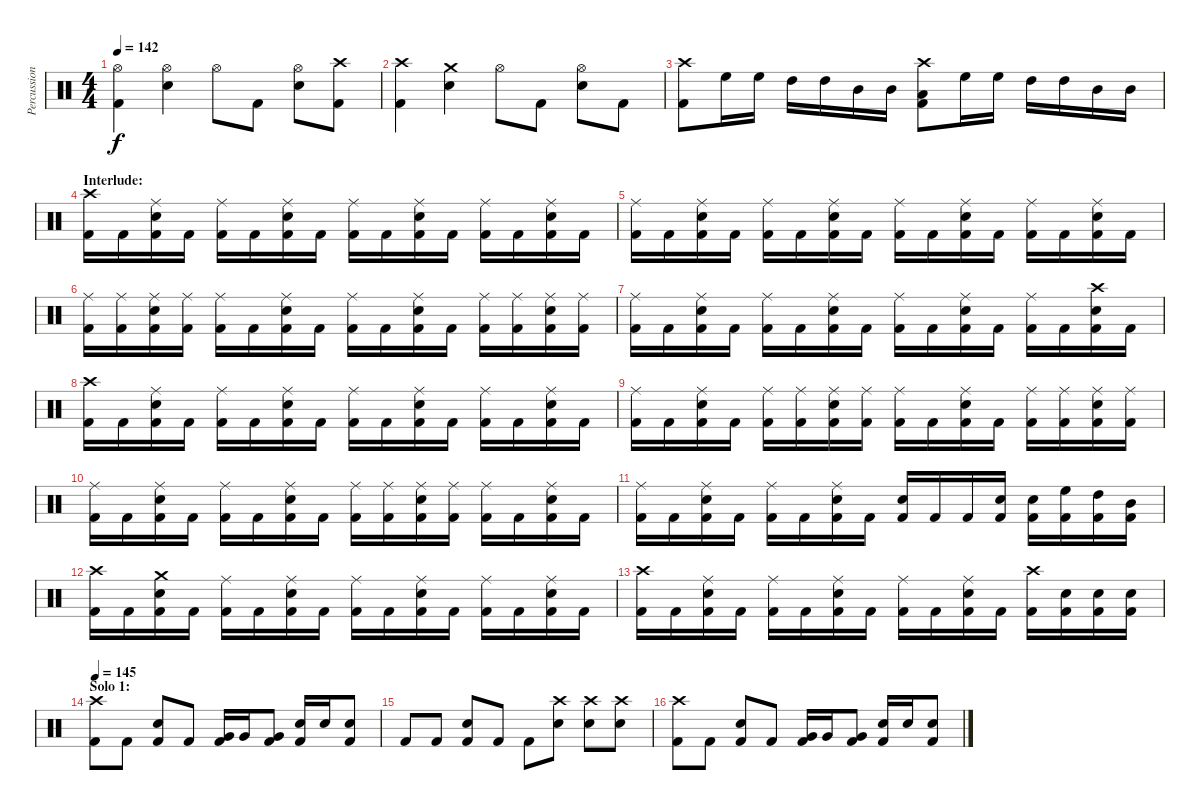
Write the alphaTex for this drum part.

\track ("Percussion" "Percussion") {instrument percussion}
\staff {score}
\articulation defaults
\ts (4 4)
\tempo 142
\clef neutral
\ks c
("Hi-Hat (open)" "Kick (hit) 2").4{dy f} ("Hi-Hat (open)" "Snare (hit) 2").4 "Hi-Hat (open)".8 "Kick (hit) 2".8 ("Hi-Hat (open)" "Snare (hit) 2").8 ("Crash high (hit)" "Kick (hit) 2").8 |
("Crash high (hit)" "Kick (hit) 2").4 ("Crash medium (hit)" "Snare (hit) 2").4 "Hi-Hat (open)".8 "Kick (hit) 2".8 ("Hi-Hat (open)" "Snare (hit) 2").8 "Kick (hit) 2".8 |
("Crash high (hit)" "Kick (hit) 2").8 "High Floor Tom (hit)".16 "High Floor Tom (hit)".16 "High Tom (hit)".16 "High Tom (hit)".16 "Mid Tom (hit)".16 "Mid Tom (hit)".16 ("Crash high (hit)" "Low Tom (hit)" "Kick (hit) 2").8 "High Floor Tom (hit)".16 "High Floor Tom (hit)".16 "High Tom (hit)".16 "High Tom (hit)".16 "Mid Tom (hit)".16 "Mid Tom (hit)".16 |
\section ("" "Interlude:")
("Crash high (hit)" "Kick (hit) 2").16 "Kick (hit) 2".16 ("Ride (middle)" "Snare (hit) 2" "Kick (hit) 2").16 "Kick (hit) 2".16 ("Ride (middle)" "Kick (hit) 2").16 "Kick (hit) 2".16 ("Ride (middle)" "Snare (hit) 2" "Kick (hit) 2").16 "Kick (hit) 2".16 ("Ride (middle)" "Kick (hit) 2").16 "Kick (hit) 2".16 ("Ride (middle)" "Snare (hit) 2" "Kick (hit) 2").16 "Kick (hit) 2".16 ("Ride (middle)" "Kick (hit) 2").16 "Kick (hit) 2".16 ("Ride (middle)" "Snare (hit) 2" "Kick (hit) 2").16 "Kick (hit) 2".16 |
("Ride (middle)" "Kick (hit) 2").16 "Kick (hit) 2".16 ("Ride (middle)" "Snare (hit) 2" "Kick (hit) 2").16 "Kick (hit) 2".16 ("Ride (middle)" "Kick (hit) 2").16 "Kick (hit) 2".16 ("Ride (middle)" "Snare (hit) 2" "Kick (hit) 2").16 "Kick (hit) 2".16 ("Ride (middle)" "Kick (hit) 2").16 "Kick (hit) 2".16 ("Ride (middle)" "Snare (hit) 2" "Kick (hit) 2").16 "Kick (hit) 2".16 ("Ride (middle)" "Kick (hit) 2").16 "Kick (hit) 2".16 ("Ride (middle)" "Snare (hit) 2" "Kick (hit) 2").16 "Kick (hit) 2".16 |
("Ride (middle)" "Kick (hit) 2").16 ("Ride (middle)" "Kick (hit) 2").16 ("Ride (middle)" "Snare (hit) 2" "Kick (hit) 2").16 ("Ride (middle)" "Kick (hit) 2").16 ("Ride (middle)" "Kick (hit) 2").16 "Kick (hit) 2".16 ("Ride (middle)" "Snare (hit) 2" "Kick (hit) 2").16 "Kick (hit) 2".16 ("Ride (middle)" "Kick (hit) 2").16 "Kick (hit) 2".16 ("Ride (middle)" "Snare (hit) 2" "Kick (hit) 2").16 "Kick (hit) 2".16 ("Ride (middle)" "Kick (hit) 2").16 ("Ride (middle)" "Kick (hit) 2").16 ("Ride (middle)" "Snare (hit) 2" "Kick (hit) 2").16 ("Ride (middle)" "Kick (hit) 2").16 |
("Ride (middle)" "Kick (hit) 2").16 "Kick (hit) 2".16 ("Ride (middle)" "Snare (hit) 2" "Kick (hit) 2").16 "Kick (hit) 2".16 ("Ride (middle)" "Kick (hit) 2").16 "Kick (hit) 2".16 ("Ride (middle)" "Snare (hit) 2" "Kick (hit) 2").16 "Kick (hit) 2".16 ("Ride (middle)" "Kick (hit) 2").16 "Kick (hit) 2".16 ("Ride (middle)" "Snare (hit) 2" "Kick (hit) 2").16 "Kick (hit) 2".16 ("Ride (middle)" "Kick (hit) 2").16 "Kick (hit) 2".16 ("Crash high (hit)" "Snare (hit) 2" "Kick (hit) 2").16 "Kick (hit) 2".16 |
("Crash high (hit)" "Kick (hit) 2").16 "Kick (hit) 2".16 ("Ride (middle)" "Snare (hit) 2" "Kick (hit) 2").16 "Kick (hit) 2".16 ("Ride (middle)" "Kick (hit) 2").16 "Kick (hit) 2".16 ("Ride (middle)" "Snare (hit) 2" "Kick (hit) 2").16 "Kick (hit) 2".16 ("Ride (middle)" "Kick (hit) 2").16 "Kick (hit) 2".16 ("Ride (middle)" "Snare (hit) 2" "Kick (hit) 2").16 "Kick (hit) 2".16 ("Ride (middle)" "Kick (hit) 2").16 "Kick (hit) 2".16 ("Ride (middle)" "Snare (hit) 2" "Kick (hit) 2").16 "Kick (hit) 2".16 |
("Ride (middle)" "Kick (hit) 2").16 "Kick (hit) 2".16 ("Ride (middle)" "Snare (hit) 2" "Kick (hit) 2").16 "Kick (hit) 2".16 ("Ride (middle)" "Kick (hit) 2").16 ("Ride (middle)" "Kick (hit) 2").16 ("Ride (middle)" "Snare (hit) 2" "Kick (hit) 2").16 ("Ride (middle)" "Kick (hit) 2").16 ("Ride (middle)" "Kick (hit) 2").16 "Kick (hit) 2".16 ("Ride (middle)" "Snare (hit) 2" "Kick (hit) 2").16 "Kick (hit) 2".16 ("Ride (middle)" "Kick (hit) 2").16 ("Ride (middle)" "Kick (hit) 2").16 ("Ride (middle)" "Snare (hit) 2" "Kick (hit) 2").16 ("Ride (middle)" "Kick (hit) 2").16 |
("Ride (middle)" "Kick (hit) 2").16 "Kick (hit) 2".16 ("Ride (middle)" "Snare (hit) 2" "Kick (hit) 2").16 "Kick (hit) 2".16 ("Ride (middle)" "Kick (hit) 2").16 "Kick (hit) 2".16 ("Ride (middle)" "Snare (hit) 2" "Kick (hit) 2").16 "Kick (hit) 2".16 ("Ride (middle)" "Kick (hit) 2").16 ("Ride (middle)" "Kick (hit) 2").16 ("Ride (middle)" "Snare (hit) 2" "Kick (hit) 2").16 ("Ride (middle)" "Kick (hit) 2").16 ("Ride (middle)" "Kick (hit) 2").16 "Kick (hit) 2".16 ("Ride (middle)" "Snare (hit) 2" "Kick (hit) 2").16 "Kick (hit) 2".16 |
("Ride (middle)" "Kick (hit) 2").16 "Kick (hit) 2".16 ("Ride (middle)" "Snare (hit) 2" "Kick (hit) 2").16 "Kick (hit) 2".16 ("Ride (middle)" "Kick (hit) 2").16 "Kick (hit) 2".16 ("Ride (middle)" "Snare (hit) 2" "Kick (hit) 2").16 "Kick (hit) 2".16 ("Snare (hit) 2" "Kick (hit) 2").16 "Kick (hit) 2".16 "Kick (hit) 2".16 ("Snare (hit) 2" "Kick (hit) 2").16 ("Snare (hit) 2" "Kick (hit) 2").16 ("High Floor Tom (hit)" "Kick (hit) 2").16 ("High Tom (hit)" "Kick (hit) 2").16 ("Mid Tom (hit)" "Kick (hit) 2").16 |
("Crash high (hit)" "Kick (hit) 2").16 "Kick (hit) 2".16 ("Crash medium (hit)" "Snare (hit) 2" "Kick (hit) 2").16 "Kick (hit) 2".16 ("Ride (middle)" "Kick (hit) 2").16 "Kick (hit) 2".16 ("Ride (middle)" "Snare (hit) 2" "Kick (hit) 2").16 "Kick (hit) 2".16 ("Ride (middle)" "Kick (hit) 2").16 "Kick (hit) 2".16 ("Ride (middle)" "Snare (hit) 2" "Kick (hit) 2").16 "Kick (hit) 2".16 ("Ride (middle)" "Kick (hit) 2").16 "Kick (hit) 2".16 ("Ride (middle)" "Snare (hit) 2" "Kick (hit) 2").16 "Kick (hit) 2".16 |
("Crash high (hit)" "Kick (hit) 2").16 "Kick (hit) 2".16 ("Ride (middle)" "Snare (hit) 2" "Kick (hit) 2").16 "Kick (hit) 2".16 ("Ride (middle)" "Kick (hit) 2").16 "Kick (hit) 2".16 ("Ride (middle)" "Snare (hit) 2" "Kick (hit) 2").16 "Kick (hit) 2".16 ("Ride (middle)" "Kick (hit) 2").16 "Kick (hit) 2".16 ("Ride (middle)" "Snare (hit) 2" "Kick (hit) 2").16 "Kick (hit) 2".16 ("Crash high (hit)" "Kick (hit) 2").16 ("Snare (hit) 2" "Kick (hit) 2").16 ("Snare (hit) 2" "Kick (hit) 2").16 ("Snare (hit) 2" "Kick (hit) 2").16 |
\section ("" "Solo 1:")
\tempo 145
("Crash high (hit)" "Kick (hit) 2").8 "Kick (hit) 2".8 ("Snare (hit) 2" "Kick (hit) 2").8 "Kick (hit) 2".8 ("Very Low Tom (hit)" "Kick (hit) 2").16 "Very Low Tom (hit)".16 ("Very Low Tom (hit)" "Kick (hit) 2").8 ("Snare (hit) 2" "Kick (hit) 2").16 "Snare (hit) 2".16 ("Snare (hit) 2" "Kick (hit) 2").8 |
"Kick (hit) 2".8 "Kick (hit) 2".8 ("Snare (hit) 2" "Kick (hit) 2").8 "Kick (hit) 2".8 "Kick (hit) 2".8 ("Crash high (hit)" "Snare (hit) 2").8 ("Crash high (hit)" "Snare (hit) 2").8 ("Crash high (hit)" "Snare (hit) 2").8 |
("Crash high (hit)" "Kick (hit) 2").8 "Kick (hit) 2".8 ("Snare (hit) 2" "Kick (hit) 2").8 "Kick (hit) 2".8 ("Very Low Tom (hit)" "Kick (hit) 2").16 "Very Low Tom (hit)".16 ("Very Low Tom (hit)" "Kick (hit) 2").8 ("Snare (hit) 2" "Kick (hit) 2").16 "Snare (hit) 2".16 ("Snare (hit) 2" "Kick (hit) 2").8
